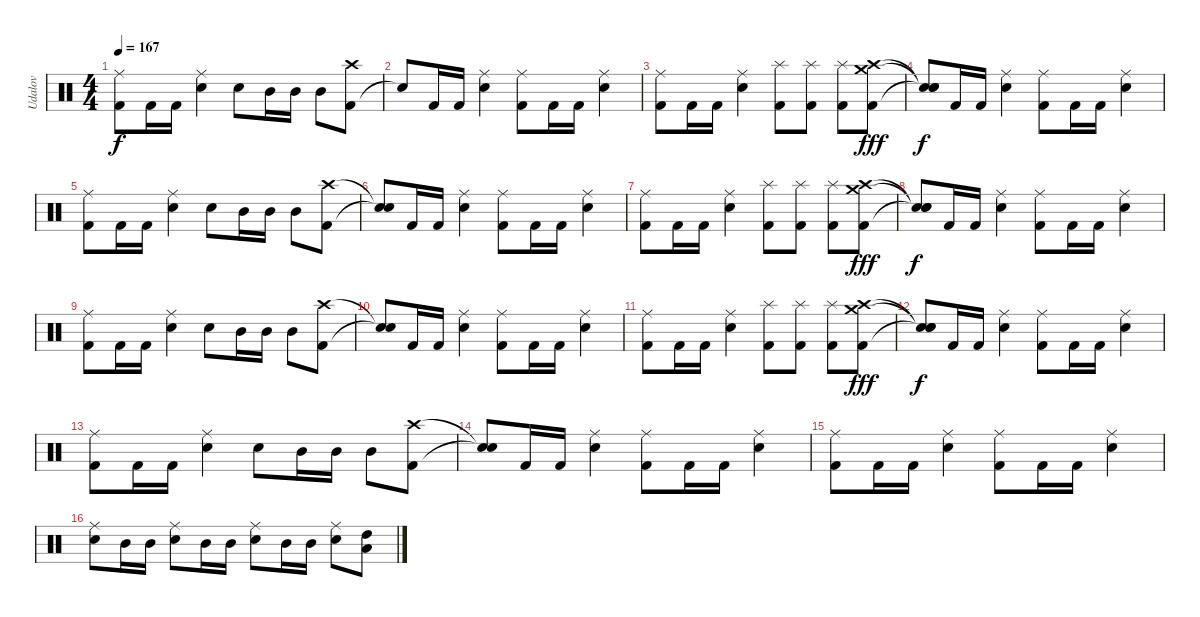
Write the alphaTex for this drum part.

\track ("Udalov" "Udalov") {instrument percussion}
\staff {score}
\articulation defaults
\ts (4 4)
\tempo 167
\clef neutral
\ks c
("Kick (hit) 2" "Ride (middle)").8{dy f} "Kick (hit) 2".16 "Kick (hit) 2".16 ("Snare (hit) 2" "Ride (middle)").4 "Snare (hit) 2".8 "Mid Tom (hit)".16 "Mid Tom (hit)".16 "Mid Tom (hit)".8 ("Kick (hit) 2" "Crash high (hit)").8 |
"Snare (hit)"{t}.8 "Kick (hit) 2".16 "Kick (hit) 2".16 ("Snare (hit) 2" "Ride (middle)").4 ("Kick (hit) 2" "Ride (middle)").8 "Kick (hit) 2".16 "Kick (hit) 2".16 ("Snare (hit) 2" "Ride (middle)").4 |
("Kick (hit) 2" "Ride (middle)").8 "Kick (hit) 2".16 "Kick (hit) 2".16 ("Snare (hit) 2" "Ride (middle)").4 ("Kick (hit) 2" "Splash (hit)").8 ("Kick (hit) 2" "Splash (hit)").8 ("Kick (hit) 2" "Splash (hit)").8 ("Kick (hit) 2" "Crash high (hit)" "Crash medium (hit)").8{dy fff} |
("Snare (hit)"{t} "Snare (hit)"{t} "Snare (hit)"{t}).8{dy f} "Kick (hit) 2".16 "Kick (hit) 2".16 ("Snare (hit) 2" "Ride (middle)").4 ("Kick (hit) 2" "Ride (middle)").8 "Kick (hit) 2".16 "Kick (hit) 2".16 ("Snare (hit) 2" "Ride (middle)").4 |
("Kick (hit) 2" "Ride (middle)").8 "Kick (hit) 2".16 "Kick (hit) 2".16 ("Snare (hit) 2" "Ride (middle)").4 "Snare (hit) 2".8 "Mid Tom (hit)".16 "Mid Tom (hit)".16 "Mid Tom (hit)".8 ("Kick (hit) 2" "Crash high (hit)").8 |
("Snare (hit)"{t} "Snare (hit)"{t}).8 "Kick (hit) 2".16 "Kick (hit) 2".16 ("Snare (hit) 2" "Ride (middle)").4 ("Kick (hit) 2" "Ride (middle)").8 "Kick (hit) 2".16 "Kick (hit) 2".16 ("Snare (hit) 2" "Ride (middle)").4 |
("Kick (hit) 2" "Ride (middle)").8 "Kick (hit) 2".16 "Kick (hit) 2".16 ("Snare (hit) 2" "Ride (middle)").4 ("Kick (hit) 2" "Splash (hit)").8 ("Kick (hit) 2" "Splash (hit)").8 ("Kick (hit) 2" "Splash (hit)").8 ("Kick (hit) 2" "Crash high (hit)" "Crash medium (hit)").8{dy fff} |
("Snare (hit)"{t} "Snare (hit)"{t} "Snare (hit)"{t}).8{dy f} "Kick (hit) 2".16 "Kick (hit) 2".16 ("Snare (hit) 2" "Ride (middle)").4 ("Kick (hit) 2" "Ride (middle)").8 "Kick (hit) 2".16 "Kick (hit) 2".16 ("Snare (hit) 2" "Ride (middle)").4 |
("Kick (hit) 2" "Ride (middle)").8 "Kick (hit) 2".16 "Kick (hit) 2".16 ("Snare (hit) 2" "Ride (middle)").4 "Snare (hit) 2".8 "Mid Tom (hit)".16 "Mid Tom (hit)".16 "Mid Tom (hit)".8 ("Kick (hit) 2" "Crash high (hit)").8 |
("Snare (hit)"{t} "Snare (hit)"{t}).8 "Kick (hit) 2".16 "Kick (hit) 2".16 ("Snare (hit) 2" "Ride (middle)").4 ("Kick (hit) 2" "Ride (middle)").8 "Kick (hit) 2".16 "Kick (hit) 2".16 ("Snare (hit) 2" "Ride (middle)").4 |
("Kick (hit) 2" "Ride (middle)").8 "Kick (hit) 2".16 "Kick (hit) 2".16 ("Snare (hit) 2" "Ride (middle)").4 ("Kick (hit) 2" "Splash (hit)").8 ("Kick (hit) 2" "Splash (hit)").8 ("Kick (hit) 2" "Splash (hit)").8 ("Kick (hit) 2" "Crash high (hit)" "Crash medium (hit)").8{dy fff} |
("Snare (hit)"{t} "Snare (hit)"{t} "Snare (hit)"{t}).8{dy f} "Kick (hit) 2".16 "Kick (hit) 2".16 ("Snare (hit) 2" "Ride (middle)").4 ("Kick (hit) 2" "Ride (middle)").8 "Kick (hit) 2".16 "Kick (hit) 2".16 ("Snare (hit) 2" "Ride (middle)").4 |
("Kick (hit) 2" "Ride (middle)").8 "Kick (hit) 2".16 "Kick (hit) 2".16 ("Snare (hit) 2" "Ride (middle)").4 "Snare (hit) 2".8 "Mid Tom (hit)".16 "Mid Tom (hit)".16 "Mid Tom (hit)".8 ("Kick (hit) 2" "Crash high (hit)").8 |
("Snare (hit)"{t} "Snare (hit)"{t}).8 "Kick (hit) 2".16 "Kick (hit) 2".16 ("Snare (hit) 2" "Ride (middle)").4 ("Kick (hit) 2" "Ride (middle)").8 "Kick (hit) 2".16 "Kick (hit) 2".16 ("Snare (hit) 2" "Ride (middle)").4 |
("Kick (hit) 2" "Ride (middle)").8 "Kick (hit) 2".16 "Kick (hit) 2".16 ("Snare (hit) 2" "Ride (middle)").4 ("Kick (hit) 2" "Ride (middle)").8 "Kick (hit) 2".16 "Kick (hit) 2".16 ("Snare (hit) 2" "Ride (middle)").4 |
("Electric Snare (hit)" "Ride (middle)").8 "Mid Tom (hit)".16 "Mid Tom (hit)".16 ("Electric Snare (hit)" "Ride (middle)").8 "Mid Tom (hit)".16 "Mid Tom (hit)".16 ("Electric Snare (hit)" "Ride (middle)").8 "Mid Tom (hit)".16 "Mid Tom (hit)".16 ("Electric Snare (hit)" "Ride (middle)").8 ("High Tom (hit)" "Low Tom (hit)").8
